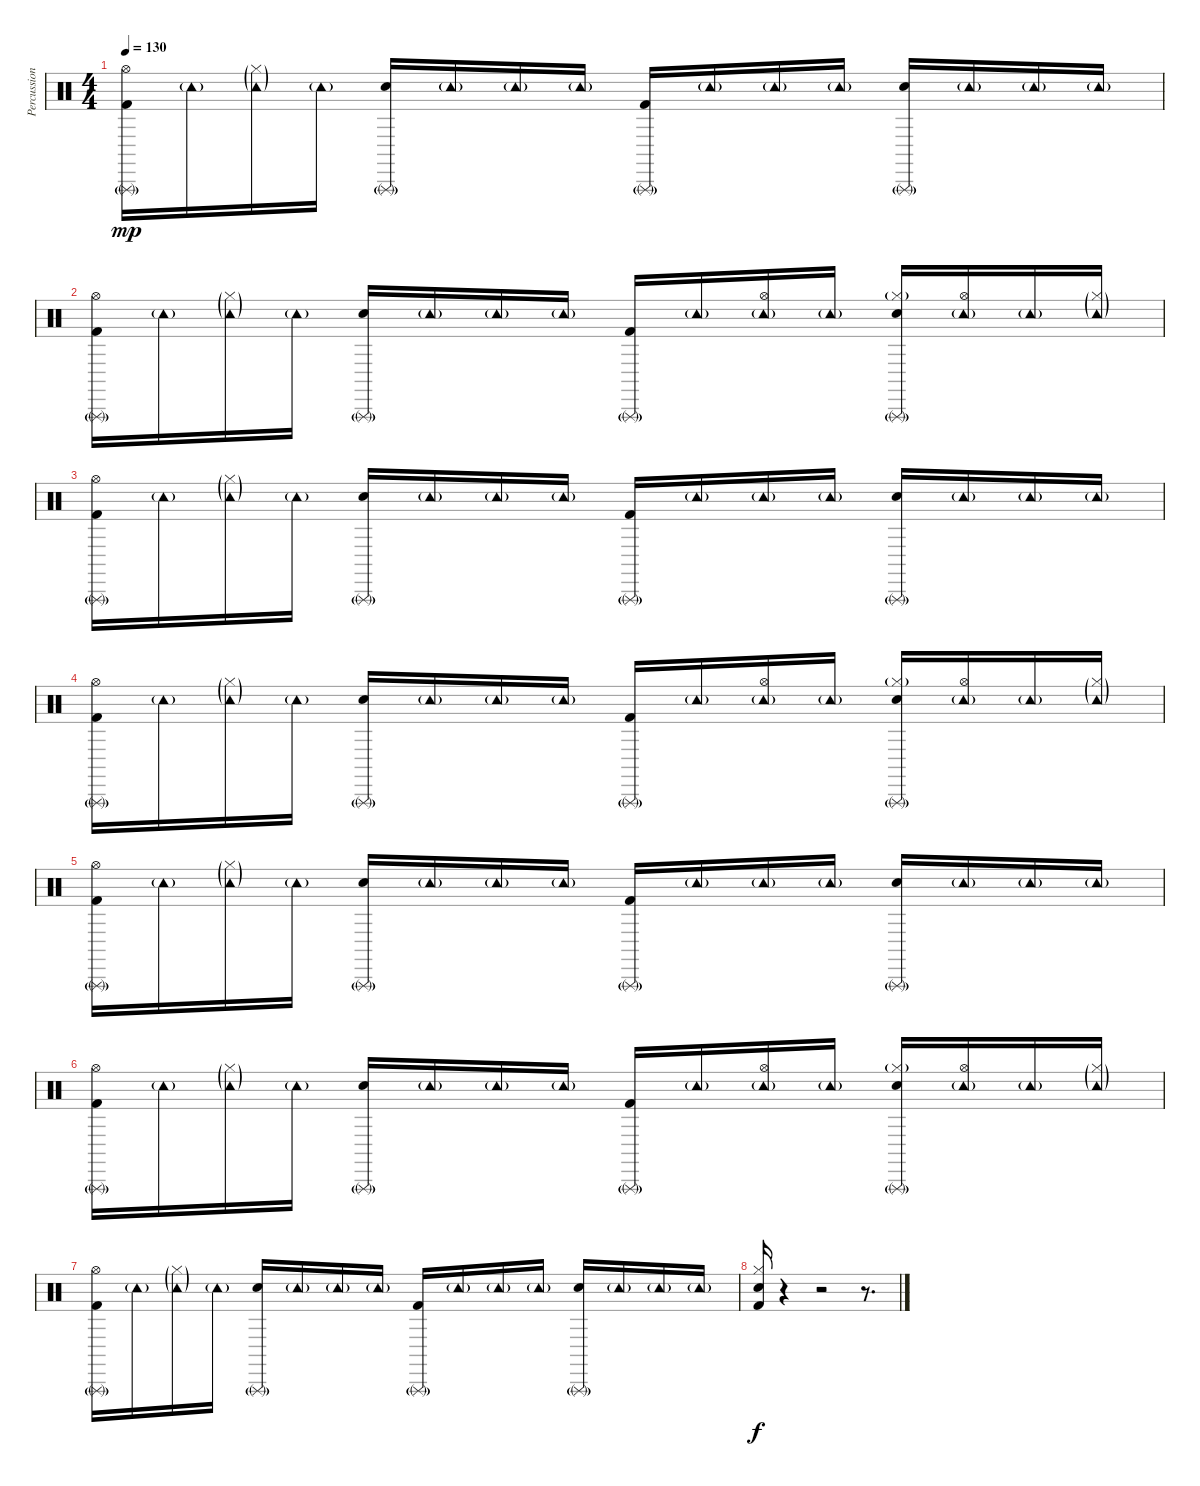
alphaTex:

\track ("Percussion" "Percussion") {instrument percussion}
\staff {score}
\articulation defaults
\ts (4 4)
\tempo 130
\clef neutral
\ks c
("Hi-Hat (open)" "Triangle (rnute)"{g} "Kick (hit) 2").16{dy mp} "Tambourine (hit)"{g}.16 ("Hi-Hat (closed)"{g} "Tambourine (hit)"{g}).16 "Tambourine (hit)"{g}.16 ("Triangle (rnute)"{g} "Electric Snare (hit)").16 "Tambourine (hit)"{g}.16 "Tambourine (hit)"{g}.16 "Tambourine (hit)"{g}.16 ("Triangle (rnute)"{g} "Kick (hit) 2").16 "Tambourine (hit)"{g}.16 "Tambourine (hit)"{g}.16 "Tambourine (hit)"{g}.16 ("Triangle (rnute)"{g} "Electric Snare (hit)").16 "Tambourine (hit)"{g}.16 "Tambourine (hit)"{g}.16 "Tambourine (hit)"{g}.16 |
("Hi-Hat (open)" "Triangle (rnute)"{g} "Kick (hit) 2").16 "Tambourine (hit)"{g}.16 ("Hi-Hat (closed)"{g} "Tambourine (hit)"{g}).16 "Tambourine (hit)"{g}.16 ("Triangle (rnute)"{g} "Electric Snare (hit)").16 "Tambourine (hit)"{g}.16 "Tambourine (hit)"{g}.16 "Tambourine (hit)"{g}.16 ("Triangle (rnute)"{g} "Kick (hit) 2").16 "Tambourine (hit)"{g}.16 ("Hi-Hat (open)" "Tambourine (hit)"{g}).16 "Tambourine (hit)"{g}.16 ("Hi-Hat (closed)"{g} "Triangle (rnute)"{g} "Electric Snare (hit)").16 ("Hi-Hat (open)" "Tambourine (hit)"{g}).16 "Tambourine (hit)"{g}.16 ("Hi-Hat (closed)"{g} "Tambourine (hit)"{g}).16 |
("Hi-Hat (open)" "Triangle (rnute)"{g} "Kick (hit) 2").16 "Tambourine (hit)"{g}.16 ("Hi-Hat (closed)"{g} "Tambourine (hit)"{g}).16 "Tambourine (hit)"{g}.16 ("Triangle (rnute)"{g} "Electric Snare (hit)").16 "Tambourine (hit)"{g}.16 "Tambourine (hit)"{g}.16 "Tambourine (hit)"{g}.16 ("Triangle (rnute)"{g} "Kick (hit) 2").16 "Tambourine (hit)"{g}.16 "Tambourine (hit)"{g}.16 "Tambourine (hit)"{g}.16 ("Triangle (rnute)"{g} "Electric Snare (hit)").16 "Tambourine (hit)"{g}.16 "Tambourine (hit)"{g}.16 "Tambourine (hit)"{g}.16 |
("Hi-Hat (open)" "Triangle (rnute)"{g} "Kick (hit) 2").16 "Tambourine (hit)"{g}.16 ("Hi-Hat (closed)"{g} "Tambourine (hit)"{g}).16 "Tambourine (hit)"{g}.16 ("Triangle (rnute)"{g} "Electric Snare (hit)").16 "Tambourine (hit)"{g}.16 "Tambourine (hit)"{g}.16 "Tambourine (hit)"{g}.16 ("Triangle (rnute)"{g} "Kick (hit) 2").16 "Tambourine (hit)"{g}.16 ("Hi-Hat (open)" "Tambourine (hit)"{g}).16 "Tambourine (hit)"{g}.16 ("Hi-Hat (closed)"{g} "Triangle (rnute)"{g} "Electric Snare (hit)").16 ("Hi-Hat (open)" "Tambourine (hit)"{g}).16 "Tambourine (hit)"{g}.16 ("Hi-Hat (closed)"{g} "Tambourine (hit)"{g}).16 |
("Hi-Hat (open)" "Triangle (rnute)"{g} "Kick (hit) 2").16 "Tambourine (hit)"{g}.16 ("Hi-Hat (closed)"{g} "Tambourine (hit)"{g}).16 "Tambourine (hit)"{g}.16 ("Triangle (rnute)"{g} "Electric Snare (hit)").16 "Tambourine (hit)"{g}.16 "Tambourine (hit)"{g}.16 "Tambourine (hit)"{g}.16 ("Triangle (rnute)"{g} "Kick (hit) 2").16 "Tambourine (hit)"{g}.16 "Tambourine (hit)"{g}.16 "Tambourine (hit)"{g}.16 ("Triangle (rnute)"{g} "Electric Snare (hit)").16 "Tambourine (hit)"{g}.16 "Tambourine (hit)"{g}.16 "Tambourine (hit)"{g}.16 |
("Hi-Hat (open)" "Triangle (rnute)"{g} "Kick (hit) 2").16 "Tambourine (hit)"{g}.16 ("Hi-Hat (closed)"{g} "Tambourine (hit)"{g}).16 "Tambourine (hit)"{g}.16 ("Triangle (rnute)"{g} "Electric Snare (hit)").16 "Tambourine (hit)"{g}.16 "Tambourine (hit)"{g}.16 "Tambourine (hit)"{g}.16 ("Triangle (rnute)"{g} "Kick (hit) 2").16 "Tambourine (hit)"{g}.16 ("Hi-Hat (open)" "Tambourine (hit)"{g}).16 "Tambourine (hit)"{g}.16 ("Hi-Hat (closed)"{g} "Triangle (rnute)"{g} "Electric Snare (hit)").16 ("Hi-Hat (open)" "Tambourine (hit)"{g}).16 "Tambourine (hit)"{g}.16 ("Hi-Hat (closed)"{g} "Tambourine (hit)"{g}).16 |
("Hi-Hat (open)" "Triangle (rnute)"{g} "Kick (hit) 2").16 "Tambourine (hit)"{g}.16 ("Hi-Hat (closed)"{g} "Tambourine (hit)"{g}).16 "Tambourine (hit)"{g}.16 ("Triangle (rnute)"{g} "Electric Snare (hit)").16 "Tambourine (hit)"{g}.16 "Tambourine (hit)"{g}.16 "Tambourine (hit)"{g}.16 ("Triangle (rnute)"{g} "Kick (hit) 2").16 "Tambourine (hit)"{g}.16 "Tambourine (hit)"{g}.16 "Tambourine (hit)"{g}.16 ("Triangle (rnute)"{g} "Electric Snare (hit)").16 "Tambourine (hit)"{g}.16 "Tambourine (hit)"{g}.16 "Tambourine (hit)"{g}.16 |
("Hi-Hat (closed)" "Electric Snare (hit)" "Kick (hit) 2").16{dy f} r.4 r.2 r.8{d}
